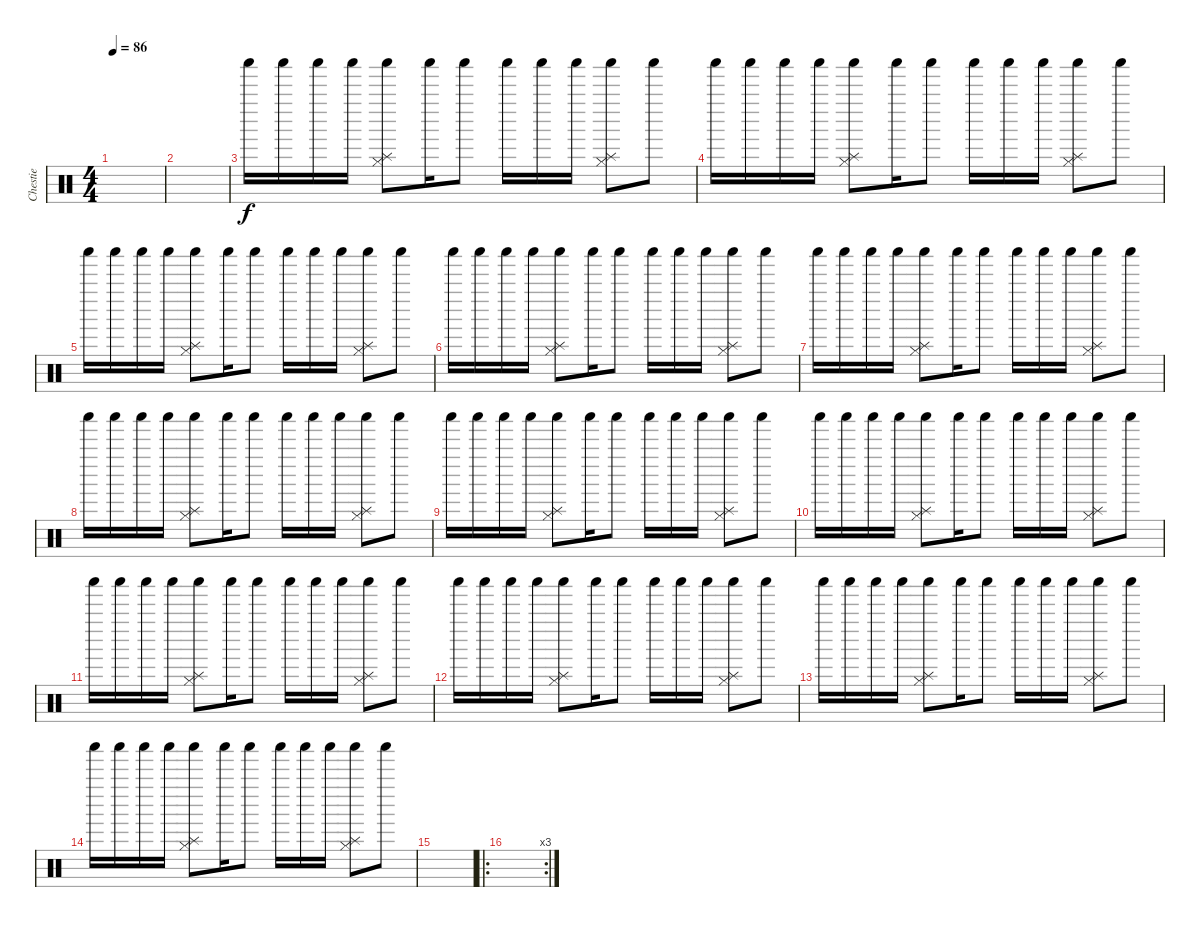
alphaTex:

\track ("Chestie" "Chestie") {instrument percussion}
\staff {score}
\articulation defaults
\ts (4 4)
\tempo 86
\clef neutral
\ks c
|
|
"Shaker (hit)".16{volume 16} "Shaker (hit)".16 "Shaker (hit)".16 "Shaker (hit)".16 ("Shaker (hit)" "Hi-Hat (closed)" "Splash (hit)").8 "Shaker (hit)".16 "Shaker (hit)".8 "Shaker (hit)".16 "Shaker (hit)".16 "Shaker (hit)".16 ("Shaker (hit)" "Hi-Hat (closed)" "Splash (hit)").8 "Shaker (hit)".8 |
"Shaker (hit)".16{volume 16} "Shaker (hit)".16 "Shaker (hit)".16 "Shaker (hit)".16 ("Shaker (hit)" "Hi-Hat (closed)" "Splash (hit)").8 "Shaker (hit)".16 "Shaker (hit)".8 "Shaker (hit)".16 "Shaker (hit)".16 "Shaker (hit)".16 ("Shaker (hit)" "Hi-Hat (closed)" "Splash (hit)").8 "Shaker (hit)".8 |
"Shaker (hit)".16 "Shaker (hit)".16 "Shaker (hit)".16 "Shaker (hit)".16 ("Shaker (hit)" "Hi-Hat (closed)" "Splash (hit)").8 "Shaker (hit)".16 "Shaker (hit)".8 "Shaker (hit)".16 "Shaker (hit)".16 "Shaker (hit)".16 ("Shaker (hit)" "Hi-Hat (closed)" "Splash (hit)").8 "Shaker (hit)".8 |
"Shaker (hit)".16 "Shaker (hit)".16 "Shaker (hit)".16 "Shaker (hit)".16 ("Shaker (hit)" "Hi-Hat (closed)" "Splash (hit)").8 "Shaker (hit)".16 "Shaker (hit)".8 "Shaker (hit)".16 "Shaker (hit)".16 "Shaker (hit)".16 ("Shaker (hit)" "Hi-Hat (closed)" "Splash (hit)").8 "Shaker (hit)".8 |
"Shaker (hit)".16{volume 16} "Shaker (hit)".16 "Shaker (hit)".16 "Shaker (hit)".16 ("Shaker (hit)" "Hi-Hat (closed)" "Splash (hit)").8 "Shaker (hit)".16 "Shaker (hit)".8 "Shaker (hit)".16 "Shaker (hit)".16 "Shaker (hit)".16 ("Shaker (hit)" "Hi-Hat (closed)" "Splash (hit)").8 "Shaker (hit)".8 |
"Shaker (hit)".16{volume 16} "Shaker (hit)".16 "Shaker (hit)".16 "Shaker (hit)".16 ("Shaker (hit)" "Hi-Hat (closed)" "Splash (hit)").8 "Shaker (hit)".16 "Shaker (hit)".8 "Shaker (hit)".16 "Shaker (hit)".16 "Shaker (hit)".16 ("Shaker (hit)" "Hi-Hat (closed)" "Splash (hit)").8 "Shaker (hit)".8 |
"Shaker (hit)".16 "Shaker (hit)".16 "Shaker (hit)".16 "Shaker (hit)".16 ("Shaker (hit)" "Hi-Hat (closed)" "Splash (hit)").8 "Shaker (hit)".16 "Shaker (hit)".8 "Shaker (hit)".16 "Shaker (hit)".16 "Shaker (hit)".16 ("Shaker (hit)" "Hi-Hat (closed)" "Splash (hit)").8 "Shaker (hit)".8 |
"Shaker (hit)".16 "Shaker (hit)".16 "Shaker (hit)".16 "Shaker (hit)".16 ("Shaker (hit)" "Hi-Hat (closed)" "Splash (hit)").8 "Shaker (hit)".16 "Shaker (hit)".8 "Shaker (hit)".16 "Shaker (hit)".16 "Shaker (hit)".16 ("Shaker (hit)" "Hi-Hat (closed)" "Splash (hit)").8 "Shaker (hit)".8 |
"Shaker (hit)".16{volume 16} "Shaker (hit)".16 "Shaker (hit)".16 "Shaker (hit)".16 ("Shaker (hit)" "Hi-Hat (closed)" "Splash (hit)").8 "Shaker (hit)".16 "Shaker (hit)".8 "Shaker (hit)".16 "Shaker (hit)".16 "Shaker (hit)".16 ("Shaker (hit)" "Hi-Hat (closed)" "Splash (hit)").8 "Shaker (hit)".8 |
"Shaker (hit)".16{volume 16} "Shaker (hit)".16 "Shaker (hit)".16 "Shaker (hit)".16 ("Shaker (hit)" "Hi-Hat (closed)" "Splash (hit)").8 "Shaker (hit)".16 "Shaker (hit)".8 "Shaker (hit)".16 "Shaker (hit)".16 "Shaker (hit)".16 ("Shaker (hit)" "Hi-Hat (closed)" "Splash (hit)").8 "Shaker (hit)".8 |
"Shaker (hit)".16 "Shaker (hit)".16 "Shaker (hit)".16 "Shaker (hit)".16 ("Shaker (hit)" "Hi-Hat (closed)" "Splash (hit)").8 "Shaker (hit)".16 "Shaker (hit)".8 "Shaker (hit)".16 "Shaker (hit)".16 "Shaker (hit)".16 ("Shaker (hit)" "Hi-Hat (closed)" "Splash (hit)").8 "Shaker (hit)".8 |
"Shaker (hit)".16 "Shaker (hit)".16 "Shaker (hit)".16 "Shaker (hit)".16 ("Shaker (hit)" "Hi-Hat (closed)" "Splash (hit)").8 "Shaker (hit)".16 "Shaker (hit)".8 "Shaker (hit)".16 "Shaker (hit)".16 "Shaker (hit)".16 ("Shaker (hit)" "Hi-Hat (closed)" "Splash (hit)").8 "Shaker (hit)".8 |
|
\ro
\rc 3
